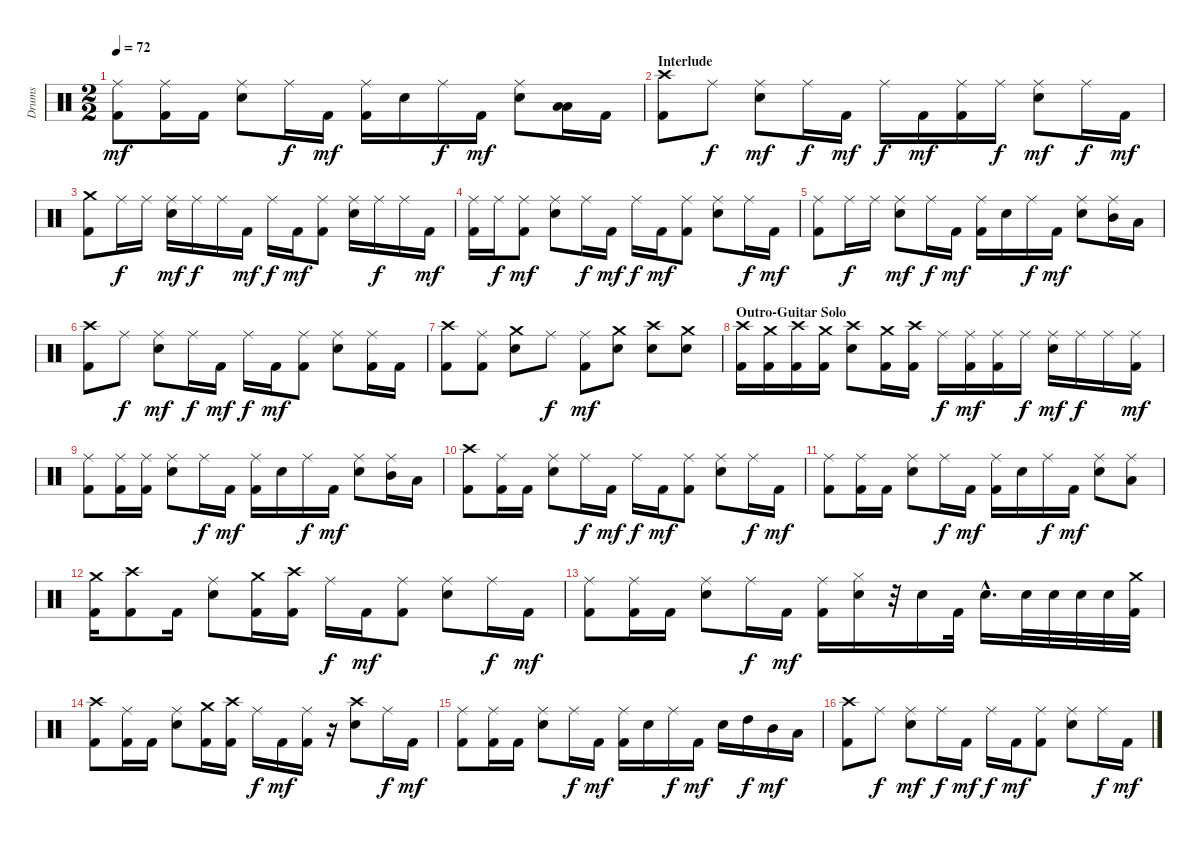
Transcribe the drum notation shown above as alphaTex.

\track ("Drums" "Drums") {instrument percussion}
\staff {score}
\articulation defaults
\ts (2 2)
\tempo 72
\clef neutral
\ks c
("Ride (middle)" "Kick (hit) 2").8{dy mf} ("Ride (middle)" "Kick (hit) 2").16 "Kick (hit) 2".16 ("Ride (middle)" "Electric Snare (hit)").8 "Ride (middle)".16{dy f} "Kick (hit) 2".16{dy mf} ("Ride (middle)" "Kick (hit) 2").16 "Electric Snare (hit)".16 "Ride (middle)".16{dy f} "Kick (hit) 2".16{dy mf} ("Ride (middle)" "Electric Snare (hit)").8 ("Low Tom (hit)" "Low Tom (hit)").16 "Kick (hit) 2".16 |
\section ("" "Interlude")
("Crash high (hit)" "Kick (hit) 2").8 "Ride (middle)".8{dy f} ("Ride (middle)" "Electric Snare (hit)").8{dy mf} "Ride (middle)".16{dy f} "Kick (hit) 2".16{dy mf} "Ride (middle)".16{dy f} "Kick (hit) 2".16{dy mf} ("Ride (middle)" "Kick (hit) 2").16 "Ride (middle)".16{dy f} ("Ride (middle)" "Electric Snare (hit)").8{dy mf} "Ride (middle)".16{dy f} "Kick (hit) 2".16{dy mf} |
("Crash medium (hit)" "Kick (hit) 2").8 "Ride (middle)".16{dy f} "Ride (middle)".16 ("Ride (middle)" "Electric Snare (hit)").16{dy mf} "Ride (middle)".16{dy f} "Ride (middle)".16 "Kick (hit) 2".16{dy mf} "Ride (middle)".16{dy f} "Kick (hit) 2".16{dy mf} ("Ride (middle)" "Kick (hit) 2").8 ("Ride (middle)" "Electric Snare (hit)").16 "Ride (middle)".16{dy f} "Ride (middle)".16 "Kick (hit) 2".16{dy mf} |
("Ride (middle)" "Kick (hit) 2").16 "Ride (middle)".16{dy f} ("Ride (middle)" "Kick (hit) 2").8{dy mf} ("Ride (middle)" "Electric Snare (hit)").8 "Ride (middle)".16{dy f} "Kick (hit) 2".16{dy mf} "Ride (middle)".16{dy f} "Kick (hit) 2".16{dy mf} ("Ride (middle)" "Kick (hit) 2").8 ("Ride (middle)" "Electric Snare (hit)").8 "Ride (middle)".16{dy f} "Kick (hit) 2".16{dy mf} |
("Ride (middle)" "Kick (hit) 2").8 "Ride (middle)".16{dy f} "Ride (middle)".16 ("Ride (middle)" "Electric Snare (hit)").8{dy mf} "Ride (middle)".16{dy f} "Kick (hit) 2".16{dy mf} ("Ride (middle)" "Kick (hit) 2").16 "Electric Snare (hit)".16 "Ride (middle)".16{dy f} "Kick (hit) 2".16{dy mf} ("Ride (middle)" "Electric Snare (hit)").8 ("Ride (middle)" "Mid Tom (hit)").16 "Low Tom (hit)".16 |
("Crash high (hit)" "Kick (hit) 2").8 "Ride (middle)".8{dy f} ("Ride (middle)" "Electric Snare (hit)").8{dy mf} "Ride (middle)".16{dy f} "Kick (hit) 2".16{dy mf} "Ride (middle)".16{dy f} "Kick (hit) 2".16{dy mf} ("Ride (middle)" "Kick (hit) 2").8 ("Ride (middle)" "Electric Snare (hit)").8 ("Ride (middle)" "Kick (hit) 2").16 "Kick (hit) 2".16 |
("Crash high (hit)" "Kick (hit) 2").8 ("Ride (middle)" "Kick (hit) 2").8 ("Crash medium (hit)" "Electric Snare (hit)").8 "Ride (middle)".8{dy f} ("Ride (middle)" "Kick (hit) 2").8{dy mf} ("Crash medium (hit)" "Electric Snare (hit)").8 ("Crash high (hit)" "Electric Snare (hit)").8 ("Crash medium (hit)" "Electric Snare (hit)").8 |
\section ("" "Outro-Guitar Solo")
("Crash high (hit)" "Kick (hit) 2").16 ("Crash medium (hit)" "Kick (hit) 2").16 ("Crash high (hit)" "Kick (hit) 2").16 ("Crash medium (hit)" "Kick (hit) 2").16 ("Crash high (hit)" "Electric Snare (hit)").8 ("Crash medium (hit)" "Kick (hit) 2").16 ("Crash high (hit)" "Kick (hit) 2").16 "Ride (middle)".16{dy f} ("Ride (middle)" "Kick (hit) 2").16{dy mf} ("Ride (middle)" "Kick (hit) 2").16 "Ride (middle)".16{dy f} ("Ride (middle)" "Electric Snare (hit)").16{dy mf} "Ride (middle)".16{dy f} "Ride (middle)".16 ("Ride (middle)" "Kick (hit) 2").16{dy mf} |
("Ride (middle)" "Kick (hit) 2").8 ("Ride (middle)" "Kick (hit) 2").16 ("Ride (middle)" "Kick (hit) 2").16 ("Ride (middle)" "Electric Snare (hit)").8 "Ride (middle)".16{dy f} "Kick (hit) 2".16{dy mf} ("Ride (middle)" "Kick (hit) 2").16 "Electric Snare (hit)".16 "Ride (middle)".16{dy f} "Kick (hit) 2".16{dy mf} ("Ride (middle)" "Electric Snare (hit)").8 ("Ride (middle)" "Mid Tom (hit)").16 "Low Tom (hit)".16 |
("Crash high (hit)" "Kick (hit) 2").8 ("Ride (middle)" "Kick (hit) 2").16 "Kick (hit) 2".16 ("Ride (middle)" "Electric Snare (hit)").8 "Ride (middle)".16{dy f} "Kick (hit) 2".16{dy mf} "Ride (middle)".16{dy f} "Kick (hit) 2".16{dy mf} ("Ride (middle)" "Kick (hit) 2").8 ("Ride (middle)" "Electric Snare (hit)").8 "Ride (middle)".16{dy f} "Kick (hit) 2".16{dy mf} |
("Ride (middle)" "Kick (hit) 2").8 ("Ride (middle)" "Kick (hit) 2").16 "Kick (hit) 2".16 ("Ride (middle)" "Electric Snare (hit)").8 "Ride (middle)".16{dy f} "Kick (hit) 2".16{dy mf} ("Ride (middle)" "Kick (hit) 2").16 "Electric Snare (hit)".16 "Ride (middle)".16{dy f} "Kick (hit) 2".16{dy mf} ("Ride (middle)" "Electric Snare (hit)").8 ("Ride (middle)" "Low Tom (hit)").8 |
("Crash medium (hit)" "Kick (hit) 2").16 ("Crash high (hit)" "Kick (hit) 2").8 "Kick (hit) 2".16 ("Ride (middle)" "Electric Snare (hit)").8 ("Crash medium (hit)" "Kick (hit) 2").16 ("Crash high (hit)" "Kick (hit) 2").16 "Ride (middle)".16{dy f} "Kick (hit) 2".16{dy mf} ("Ride (middle)" "Kick (hit) 2").8 ("Ride (middle)" "Electric Snare (hit)").8 "Ride (middle)".16{dy f} "Kick (hit) 2".16{dy mf} |
("Ride (middle)" "Kick (hit) 2").8 ("Ride (middle)" "Kick (hit) 2").16 "Kick (hit) 2".16 ("Ride (middle)" "Electric Snare (hit)").8 "Ride (middle)".16{dy f} "Kick (hit) 2".16{dy mf} ("Ride (middle)" "Kick (hit) 2").16 ("Hi-Hat (closed)" "Electric Snare (hit)").16 r.32 "Electric Snare (hit)".16 "Kick (hit) 2".32 "Electric Snare (hit)"{hac}.16{d} "Electric Snare (hit)".32 "Electric Snare (hit)".32 "Electric Snare (hit)".32 "Electric Snare (hit)".32 ("Crash medium (hit)" "Kick (hit) 2").32 |
("Crash high (hit)" "Kick (hit) 2").8 ("Ride (middle)" "Kick (hit) 2").16 "Kick (hit) 2".16 ("Ride (middle)" "Electric Snare (hit)").8 ("Crash medium (hit)" "Kick (hit) 2").16 ("Crash high (hit)" "Kick (hit) 2").16 "Ride (middle)".16{dy f} "Kick (hit) 2".16{dy mf} ("Ride (middle)" "Kick (hit) 2").16 r.16 ("Crash high (hit)" "Electric Snare (hit)").8 "Ride (middle)".16{dy f} "Kick (hit) 2".16{dy mf} |
("Ride (middle)" "Kick (hit) 2").8 ("Ride (middle)" "Kick (hit) 2").16 "Kick (hit) 2".16 ("Ride (middle)" "Electric Snare (hit)").8 "Ride (middle)".16{dy f} "Kick (hit) 2".16{dy mf} ("Ride (middle)" "Kick (hit) 2").16 "Electric Snare (hit)".16 "Ride (middle)".16{dy f} "Kick (hit) 2".16{dy mf} "Electric Snare (hit)".16 "High Tom (hit)".16{dy f} "Mid Tom (hit)".16{dy mf} "Low Tom (hit)".16 |
("Crash high (hit)" "Kick (hit) 2").8 "Ride (middle)".8{dy f} ("Ride (middle)" "Electric Snare (hit)").8{dy mf} "Ride (middle)".16{dy f} "Kick (hit) 2".16{dy mf} "Ride (middle)".16{dy f} "Kick (hit) 2".16{dy mf} ("Ride (middle)" "Kick (hit) 2").8 ("Ride (middle)" "Electric Snare (hit)").8 "Ride (middle)".16{dy f} "Kick (hit) 2".16{dy mf}
